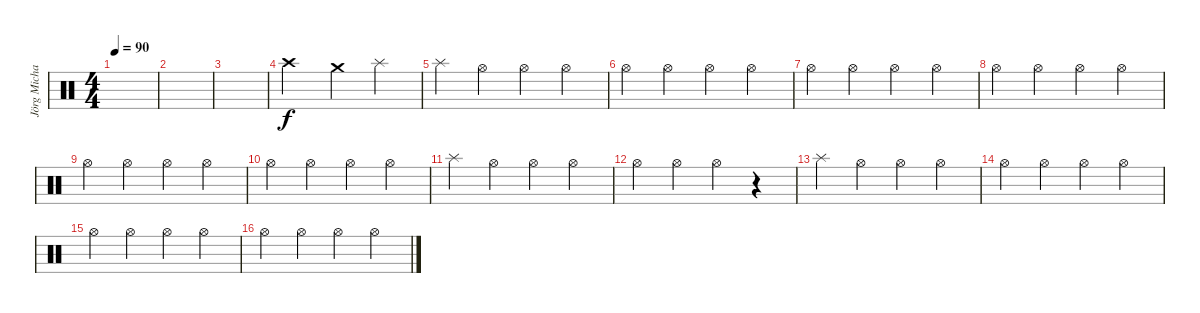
\track ("Jörg Michael Drums" "Jörg Micha") {instrument percussion}
\staff {score}
\articulation defaults
\ts (4 4)
\tempo 90
\clef neutral
\ks c
|
|
|
"Crash high (hit)".2 "Crash medium (hit)".4 "Splash (hit)".4 |
"Splash (hit)".4 "Hi-Hat (open)".4 "Hi-Hat (open)".4 "Hi-Hat (open)".4 |
"Hi-Hat (open)".4 "Hi-Hat (open)".4 "Hi-Hat (open)".4 "Hi-Hat (open)".4 |
"Hi-Hat (open)".4 "Hi-Hat (open)".4 "Hi-Hat (open)".4 "Hi-Hat (open)".4 |
"Hi-Hat (open)".4 "Hi-Hat (open)".4 "Hi-Hat (open)".4 "Hi-Hat (open)".4 |
"Hi-Hat (open)".4 "Hi-Hat (open)".4 "Hi-Hat (open)".4 "Hi-Hat (open)".4 |
"Hi-Hat (open)".4 "Hi-Hat (open)".4 "Hi-Hat (open)".4 "Hi-Hat (open)".4 |
"Splash (hit)".4 "Hi-Hat (open)".4 "Hi-Hat (open)".4 "Hi-Hat (open)".4 |
"Hi-Hat (open)".4 "Hi-Hat (open)".4 "Hi-Hat (open)".4 r.4 |
"Splash (hit)".4 "Hi-Hat (open)".4 "Hi-Hat (open)".4 "Hi-Hat (open)".4 |
"Hi-Hat (open)".4 "Hi-Hat (open)".4 "Hi-Hat (open)".4 "Hi-Hat (open)".4 |
"Hi-Hat (open)".4 "Hi-Hat (open)".4 "Hi-Hat (open)".4 "Hi-Hat (open)".4 |
"Hi-Hat (open)".4 "Hi-Hat (open)".4 "Hi-Hat (open)".4 "Hi-Hat (open)".4
